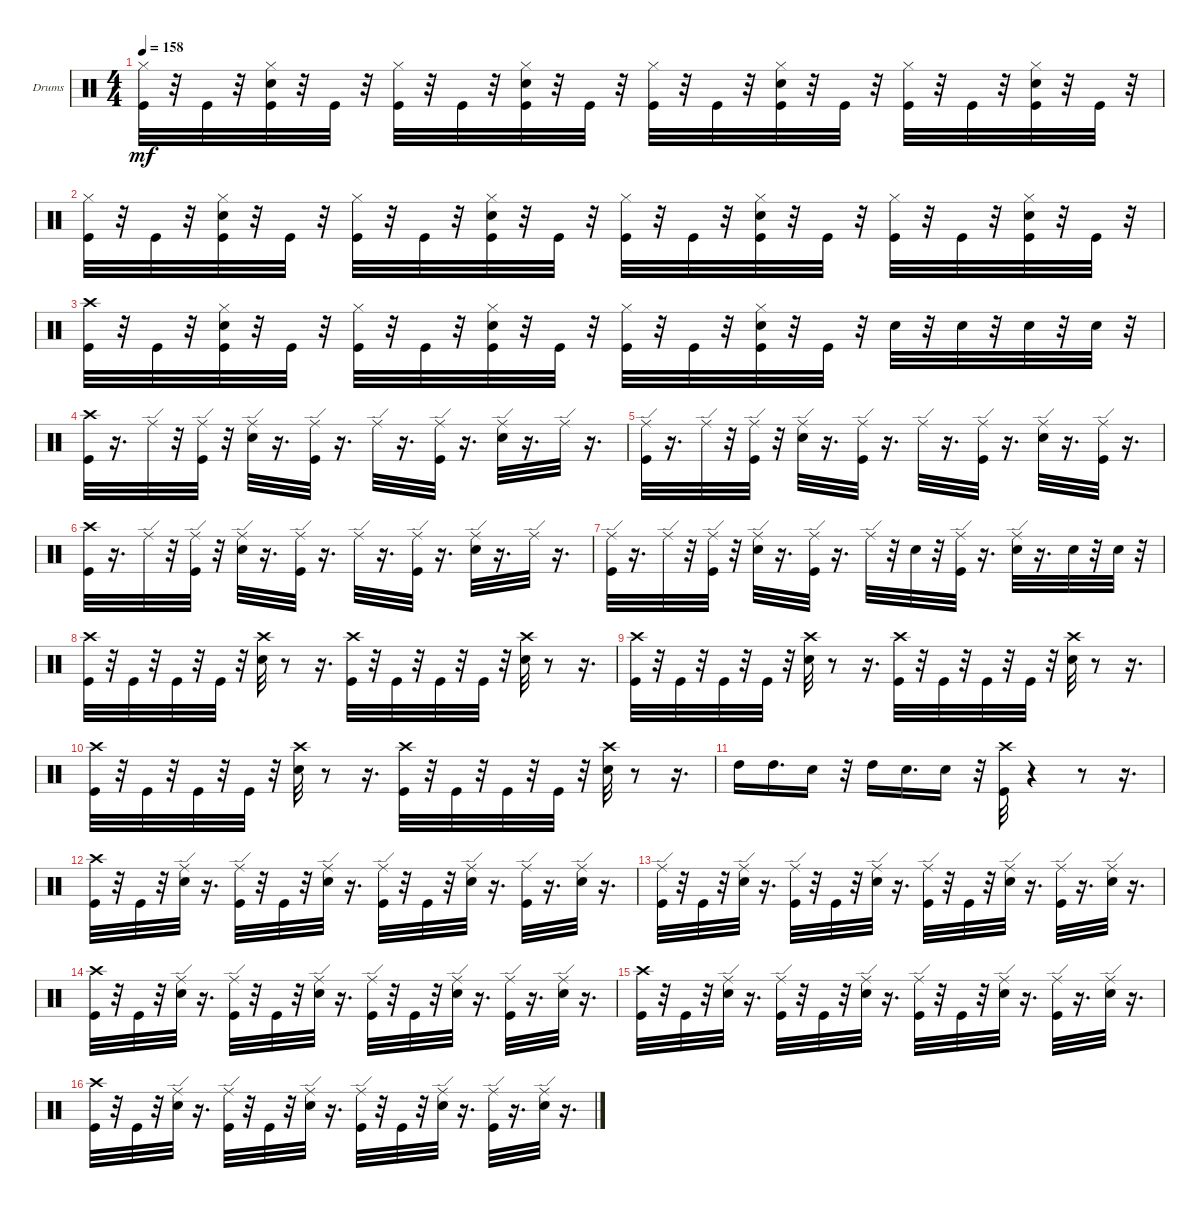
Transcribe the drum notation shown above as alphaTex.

\bracketExtendMode groupsimilarinstruments
\firstSystemTrackNameOrientation horizontal
\otherSystemsTrackNameOrientation horizontal
\track ("" "Drums") {instrument percussion}
\staff {score}
\articulation defaults
\ts (4 4)
\tempo 158
\clef neutral
\ks c
("Hi-Hat (closed)" "Kick (hit)").32{dy mf} r.32 "Kick (hit)".32 r.32 ("Kick (hit)" "Snare (hit) 2" "Hi-Hat (closed)").32 r.32 "Kick (hit)".32 r.32 ("Kick (hit)" "Hi-Hat (closed)").32 r.32 "Kick (hit)".32 r.32 ("Kick (hit)" "Snare (hit) 2" "Hi-Hat (closed)").32 r.32 "Kick (hit)".32 r.32 ("Kick (hit)" "Hi-Hat (closed)").32 r.32 "Kick (hit)".32 r.32 ("Kick (hit)" "Snare (hit) 2" "Hi-Hat (closed)").32 r.32 "Kick (hit)".32 r.32 ("Kick (hit)" "Hi-Hat (closed)").32 r.32 "Kick (hit)".32 r.32 ("Kick (hit)" "Snare (hit) 2" "Hi-Hat (closed)").32 r.32 "Kick (hit)".32 r.32 |
("Hi-Hat (closed)" "Kick (hit)").32 r.32 "Kick (hit)".32 r.32 ("Kick (hit)" "Snare (hit) 2" "Hi-Hat (closed)").32 r.32 "Kick (hit)".32 r.32 ("Kick (hit)" "Hi-Hat (closed)").32 r.32 "Kick (hit)".32 r.32 ("Kick (hit)" "Snare (hit) 2" "Hi-Hat (closed)").32 r.32 "Kick (hit)".32 r.32 ("Kick (hit)" "Hi-Hat (closed)").32 r.32 "Kick (hit)".32 r.32 ("Kick (hit)" "Snare (hit) 2" "Hi-Hat (closed)").32 r.32 "Kick (hit)".32 r.32 ("Kick (hit)" "Hi-Hat (closed)").32 r.32 "Kick (hit)".32 r.32 ("Kick (hit)" "Snare (hit) 2" "Hi-Hat (closed)").32 r.32 "Kick (hit)".32 r.32 |
("Crash high (hit)" "Kick (hit)").32 r.32 "Kick (hit)".32 r.32 ("Kick (hit)" "Snare (hit) 2" "Hi-Hat (closed)").32 r.32 "Kick (hit)".32 r.32 ("Kick (hit)" "Hi-Hat (closed)").32 r.32 "Kick (hit)".32 r.32 ("Kick (hit)" "Snare (hit) 2" "Hi-Hat (closed)").32 r.32 "Kick (hit)".32 r.32 ("Hi-Hat (closed)" "Kick (hit)").32 r.32 "Kick (hit)".32 r.32 ("Kick (hit)" "Snare (hit) 2" "Hi-Hat (closed)").32 r.32 "Kick (hit)".32 r.32 "Snare (hit) 2".32 r.32 "Snare (hit) 2".32 r.32 "Snare (hit) 2".32 r.32 "Snare (hit) 2".32 r.32 |
("Crash high (hit)" "Kick (hit)").32 r.16{d} "Ride (edge)".32 r.32 ("Kick (hit)" "Ride (edge)").32 r.32 ("Ride (edge)" "Snare (hit) 2").32 r.16{d} ("Kick (hit)" "Ride (edge)").32 r.16{d} "Ride (edge)".32 r.16{d} ("Kick (hit)" "Ride (edge)").32 r.16{d} ("Snare (hit) 2" "Ride (edge)").32 r.16{d} "Ride (edge)".32 r.16{d} |
("Ride (edge)" "Kick (hit)").32 r.16{d} "Ride (edge)".32 r.32 ("Kick (hit)" "Ride (edge)").32 r.32 ("Ride (edge)" "Snare (hit) 2").32 r.16{d} ("Kick (hit)" "Ride (edge)").32 r.16{d} "Ride (edge)".32 r.16{d} ("Kick (hit)" "Ride (edge)").32 r.16{d} ("Snare (hit) 2" "Ride (edge)").32 r.16{d} ("Ride (edge)" "Kick (hit)").32 r.16{d} |
("Crash high (hit)" "Kick (hit)").32 r.16{d} "Ride (edge)".32 r.32 ("Kick (hit)" "Ride (edge)").32 r.32 ("Ride (edge)" "Snare (hit) 2").32 r.16{d} ("Kick (hit)" "Ride (edge)").32 r.16{d} "Ride (edge)".32 r.16{d} ("Kick (hit)" "Ride (edge)").32 r.16{d} ("Snare (hit) 2" "Ride (edge)").32 r.16{d} "Ride (edge)".32 r.16{d} |
("Ride (edge)" "Kick (hit)").32 r.16{d} "Ride (edge)".32 r.32 ("Kick (hit)" "Ride (edge)").32 r.32 ("Ride (edge)" "Snare (hit) 2").32 r.16{d} ("Kick (hit)" "Ride (edge)").32 r.16{d} "Ride (edge)".32 r.32 "Snare (hit) 2".32 r.32 ("Kick (hit)" "Ride (edge)").32 r.16{d} ("Snare (hit) 2" "Ride (edge)").32 r.16{d} "Snare (hit) 2".32 r.32 "Snare (hit) 2".32 r.32 |
("Crash high (hit)" "Kick (hit)").32 r.32 "Kick (hit)".32 r.32 "Kick (hit)".32 r.32 "Kick (hit)".32 r.32 ("Crash high (hit)" "Snare (hit) 2").32 r.8 r.16{d} ("Crash high (hit)" "Kick (hit)").32 r.32 "Kick (hit)".32 r.32 "Kick (hit)".32 r.32 "Kick (hit)".32 r.32 ("Crash high (hit)" "Snare (hit) 2").32 r.8 r.16{d} |
("Crash high (hit)" "Kick (hit)").32 r.32 "Kick (hit)".32 r.32 "Kick (hit)".32 r.32 "Kick (hit)".32 r.32 ("Crash high (hit)" "Snare (hit) 2").32 r.8 r.16{d} ("Crash high (hit)" "Kick (hit)").32 r.32 "Kick (hit)".32 r.32 "Kick (hit)".32 r.32 "Kick (hit)".32 r.32 ("Crash high (hit)" "Snare (hit) 2").32 r.8 r.16{d} |
("Crash high (hit)" "Kick (hit)").32 r.32 "Kick (hit)".32 r.32 "Kick (hit)".32 r.32 "Kick (hit)".32 r.32 ("Crash high (hit)" "Snare (hit) 2").32 r.8 r.16{d} ("Crash high (hit)" "Kick (hit)").32 r.32 "Kick (hit)".32 r.32 "Kick (hit)".32 r.32 "Kick (hit)".32 r.32 ("Crash high (hit)" "Snare (hit) 2").32 r.8 r.16{d} |
"High Tom (hit)".16 "High Tom (hit)".16{d} "Snare (hit) 2".16 r.32 "High Tom (hit)".16 "Snare (hit) 2".16{d} "Snare (hit) 2".16 r.32 ("Crash high (hit)" "Kick (hit)").32 r.4 r.8 r.16{d} |
("Crash high (hit)" "Kick (hit)").32 r.32 "Kick (hit)".32 r.32 ("Snare (hit) 2" "Ride (edge)").32 r.16{d} ("Ride (edge)" "Kick (hit)").32 r.32 "Kick (hit)".32 r.32 ("Ride (edge)" "Snare (hit) 2").32 r.16{d} ("Kick (hit)" "Ride (edge)").32 r.32 "Kick (hit)".32 r.32 ("Snare (hit) 2" "Ride (edge)").32 r.16{d} ("Kick (hit)" "Ride (edge)").32 r.16{d} ("Snare (hit) 2" "Ride (edge)").32 r.16{d} |
("Ride (edge)" "Kick (hit)").32 r.32 "Kick (hit)".32 r.32 ("Snare (hit) 2" "Ride (edge)").32 r.16{d} ("Ride (edge)" "Kick (hit)").32 r.32 "Kick (hit)".32 r.32 ("Ride (edge)" "Snare (hit) 2").32 r.16{d} ("Kick (hit)" "Ride (edge)").32 r.32 "Kick (hit)".32 r.32 ("Snare (hit) 2" "Ride (edge)").32 r.16{d} ("Kick (hit)" "Ride (edge)").32 r.16{d} ("Snare (hit) 2" "Ride (edge)").32 r.16{d} |
("Crash high (hit)" "Kick (hit)").32 r.32 "Kick (hit)".32 r.32 ("Snare (hit) 2" "Ride (edge)").32 r.16{d} ("Ride (edge)" "Kick (hit)").32 r.32 "Kick (hit)".32 r.32 ("Ride (edge)" "Snare (hit) 2").32 r.16{d} ("Kick (hit)" "Ride (edge)").32 r.32 "Kick (hit)".32 r.32 ("Snare (hit) 2" "Ride (edge)").32 r.16{d} ("Kick (hit)" "Ride (edge)").32 r.16{d} ("Snare (hit) 2" "Ride (edge)").32 r.16{d} |
("Crash high (hit)" "Kick (hit)").32 r.32 "Kick (hit)".32 r.32 ("Snare (hit) 2" "Ride (edge)").32 r.16{d} ("Ride (edge)" "Kick (hit)").32 r.32 "Kick (hit)".32 r.32 ("Ride (edge)" "Snare (hit) 2").32 r.16{d} ("Kick (hit)" "Ride (edge)").32 r.32 "Kick (hit)".32 r.32 ("Snare (hit) 2" "Ride (edge)").32 r.16{d} ("Kick (hit)" "Ride (edge)").32 r.16{d} ("Snare (hit) 2" "Ride (edge)").32 r.16{d} |
("Crash high (hit)" "Kick (hit)").32 r.32 "Kick (hit)".32 r.32 ("Snare (hit) 2" "Ride (edge)").32 r.16{d} ("Ride (edge)" "Kick (hit)").32 r.32 "Kick (hit)".32 r.32 ("Ride (edge)" "Snare (hit) 2").32 r.16{d} ("Kick (hit)" "Ride (edge)").32 r.32 "Kick (hit)".32 r.32 ("Snare (hit) 2" "Ride (edge)").32 r.16{d} ("Kick (hit)" "Ride (edge)").32 r.16{d} ("Snare (hit) 2" "Ride (edge)").32 r.16{d}
